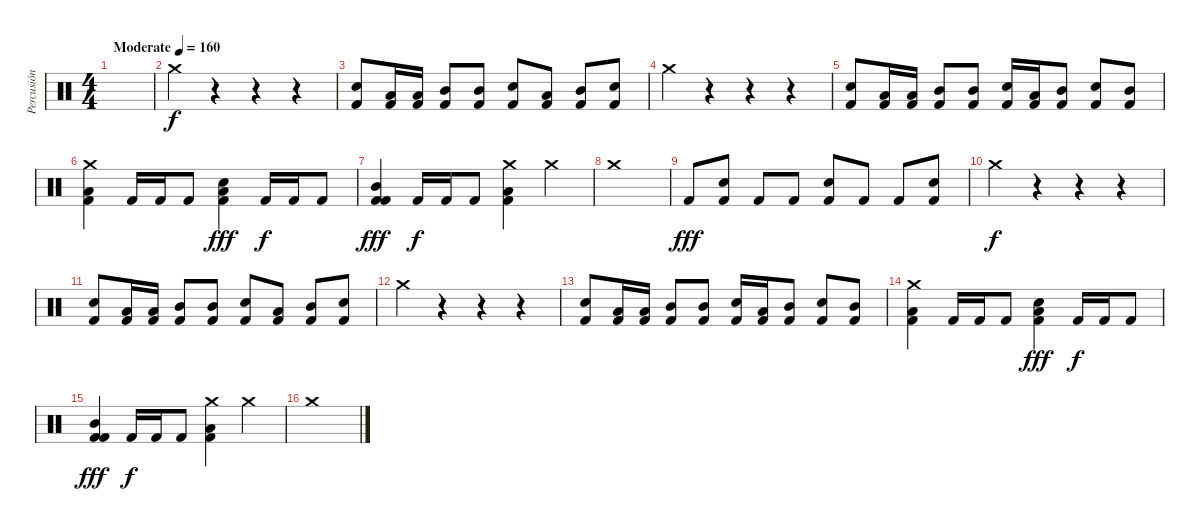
\track ("Percusión" "Percusión") {instrument percussion}
\staff {score}
\articulation defaults
\ts (4 4)
\tempo (160 "Moderate")
\clef neutral
\ks c
|
"Crash medium (hit)".4 r.4 r.4 r.4 |
("Snare (hit) 2" "Kick (hit) 2").8 ("Low Tom (hit)" "Kick (hit) 2").16 ("Low Tom (hit)" "Kick (hit) 2").16 ("Mid Tom (hit)" "Kick (hit) 2").8 ("Mid Tom (hit)" "Kick (hit) 2").8 ("Snare (hit) 2" "Kick (hit) 2").8 ("Low Tom (hit)" "Kick (hit) 2").8 ("Mid Tom (hit)" "Kick (hit) 2").8 ("Snare (hit) 2" "Kick (hit) 2").8 |
"Crash medium (hit)".4 r.4 r.4 r.4 |
("Snare (hit) 2" "Kick (hit) 2").8 ("Low Tom (hit)" "Kick (hit) 2").16 ("Low Tom (hit)" "Kick (hit) 2").16 ("Mid Tom (hit)" "Kick (hit) 2").8 ("Mid Tom (hit)" "Kick (hit) 2").8 ("Snare (hit) 2" "Kick (hit) 2").16 ("Low Tom (hit)" "Kick (hit) 2").16 ("Mid Tom (hit)" "Kick (hit) 2").8 ("Snare (hit) 2" "Kick (hit) 2").8 ("Mid Tom (hit)" "Kick (hit) 2").8 |
("Crash medium (hit)" "Low Tom (hit)" "Kick (hit) 2").4 "Kick (hit) 2".16 "Kick (hit) 2".16 "Kick (hit) 2".8 ("Snare (hit) 2" "Low Tom (hit)" "Kick (hit) 2").4{dy fff} "Kick (hit) 2".16{dy f} "Kick (hit) 2".16 "Kick (hit) 2".8 |
("Kick (hit) 2" "Mid Tom (hit)" "Kick (hit) 2").4{dy fff} "Kick (hit) 2".16{dy f} "Kick (hit) 2".16 "Kick (hit) 2".8 ("Crash medium (hit)" "Low Tom (hit)" "Kick (hit) 2").4 "Crash medium (hit)".4 |
"Crash medium (hit)".1 |
"Kick (hit) 2".8{dy fff} ("Snare (hit) 2" "Kick (hit) 2").8 "Kick (hit) 2".8 "Kick (hit) 2".8 ("Snare (hit) 2" "Kick (hit) 2").8 "Kick (hit) 2".8 "Kick (hit) 2".8 ("Snare (hit) 2" "Kick (hit) 2").8 |
"Crash medium (hit)".4{dy f} r.4 r.4 r.4 |
("Snare (hit) 2" "Kick (hit) 2").8 ("Low Tom (hit)" "Kick (hit) 2").16 ("Low Tom (hit)" "Kick (hit) 2").16 ("Mid Tom (hit)" "Kick (hit) 2").8 ("Mid Tom (hit)" "Kick (hit) 2").8 ("Snare (hit) 2" "Kick (hit) 2").8 ("Low Tom (hit)" "Kick (hit) 2").8 ("Mid Tom (hit)" "Kick (hit) 2").8 ("Snare (hit) 2" "Kick (hit) 2").8 |
"Crash medium (hit)".4 r.4 r.4 r.4 |
("Snare (hit) 2" "Kick (hit) 2").8 ("Low Tom (hit)" "Kick (hit) 2").16 ("Low Tom (hit)" "Kick (hit) 2").16 ("Mid Tom (hit)" "Kick (hit) 2").8 ("Mid Tom (hit)" "Kick (hit) 2").8 ("Snare (hit) 2" "Kick (hit) 2").16 ("Low Tom (hit)" "Kick (hit) 2").16 ("Mid Tom (hit)" "Kick (hit) 2").8 ("Snare (hit) 2" "Kick (hit) 2").8 ("Mid Tom (hit)" "Kick (hit) 2").8 |
("Crash medium (hit)" "Low Tom (hit)" "Kick (hit) 2").4 "Kick (hit) 2".16 "Kick (hit) 2".16 "Kick (hit) 2".8 ("Snare (hit) 2" "Low Tom (hit)" "Kick (hit) 2").4{dy fff} "Kick (hit) 2".16{dy f} "Kick (hit) 2".16 "Kick (hit) 2".8 |
("Kick (hit) 2" "Mid Tom (hit)" "Kick (hit) 2").4{dy fff} "Kick (hit) 2".16{dy f} "Kick (hit) 2".16 "Kick (hit) 2".8 ("Crash medium (hit)" "Low Tom (hit)" "Kick (hit) 2").4 "Crash medium (hit)".4 |
"Crash medium (hit)".1
